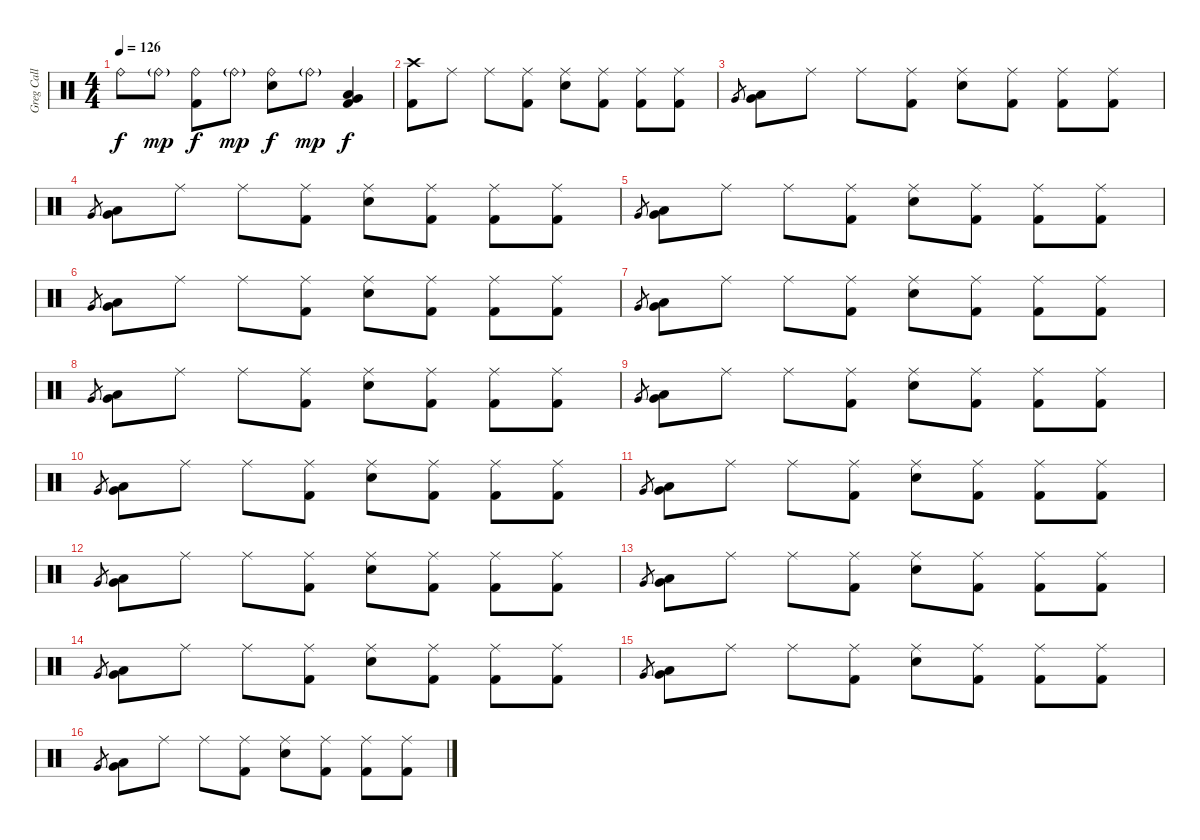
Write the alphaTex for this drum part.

\track ("Greg Call (Drums)" "Greg Call ") {instrument percussion}
\staff {score}
\articulation defaults
\ts (4 4)
\tempo 126
\clef neutral
\ks c "Ride (bell)".8{dy f} "Ride (bell)"{g}.8{dy mp}
("Ride (bell)" "Kick (hit) 2").8{dy f} "Ride (bell)"{g}.8{dy mp} ("Ride (bell)" "Snare (hit) 2").8{dy f} "Ride (bell)"{g}.8{dy mp} ("Very Low Tom (hit)" "Low Floor Tom (hit)" "Kick (hit) 2").4{dy f} |
("Crash high (hit)" "Kick (hit) 2").8 "Ride (middle)".8 "Ride (middle)".8 ("Ride (middle)" "Kick (hit) 2").8 ("Ride (middle)" "Snare (hit) 2").8 ("Ride (middle)" "Kick (hit) 2").8 ("Ride (middle)" "Kick (hit) 2").8 ("Ride (middle)" "Kick (hit) 2").8 |
"Very Low Tom (hit)".8{gr} ("Very Low Tom (hit)" "Low Floor Tom (hit)").8 "Ride (middle)".8 "Ride (middle)".8 ("Ride (middle)" "Kick (hit) 2").8 ("Ride (middle)" "Snare (hit) 2").8 ("Ride (middle)" "Kick (hit) 2").8 ("Ride (middle)" "Kick (hit) 2").8 ("Ride (middle)" "Kick (hit) 2").8 |
"Very Low Tom (hit)".8{gr} ("Very Low Tom (hit)" "Low Floor Tom (hit)").8 "Ride (middle)".8 "Ride (middle)".8 ("Ride (middle)" "Kick (hit) 2").8 ("Ride (middle)" "Snare (hit) 2").8 ("Ride (middle)" "Kick (hit) 2").8 ("Ride (middle)" "Kick (hit) 2").8 ("Ride (middle)" "Kick (hit) 2").8 |
"Very Low Tom (hit)".8{gr} ("Very Low Tom (hit)" "Low Floor Tom (hit)").8 "Ride (middle)".8 "Ride (middle)".8 ("Ride (middle)" "Kick (hit) 2").8 ("Ride (middle)" "Snare (hit) 2").8 ("Ride (middle)" "Kick (hit) 2").8 ("Ride (middle)" "Kick (hit) 2").8 ("Ride (middle)" "Kick (hit) 2").8 |
"Very Low Tom (hit)".8{gr} ("Very Low Tom (hit)" "Low Floor Tom (hit)").8 "Ride (middle)".8 "Ride (middle)".8 ("Ride (middle)" "Kick (hit) 2").8 ("Ride (middle)" "Snare (hit) 2").8 ("Ride (middle)" "Kick (hit) 2").8 ("Ride (middle)" "Kick (hit) 2").8 ("Ride (middle)" "Kick (hit) 2").8 |
"Very Low Tom (hit)".8{gr} ("Very Low Tom (hit)" "Low Floor Tom (hit)").8 "Ride (middle)".8 "Ride (middle)".8 ("Ride (middle)" "Kick (hit) 2").8 ("Ride (middle)" "Snare (hit) 2").8 ("Ride (middle)" "Kick (hit) 2").8 ("Ride (middle)" "Kick (hit) 2").8 ("Ride (middle)" "Kick (hit) 2").8 |
"Very Low Tom (hit)".8{gr} ("Very Low Tom (hit)" "Low Floor Tom (hit)").8 "Ride (middle)".8 "Ride (middle)".8 ("Ride (middle)" "Kick (hit) 2").8 ("Ride (middle)" "Snare (hit) 2").8 ("Ride (middle)" "Kick (hit) 2").8 ("Ride (middle)" "Kick (hit) 2").8 ("Ride (middle)" "Kick (hit) 2").8 |
"Very Low Tom (hit)".8{gr} ("Very Low Tom (hit)" "Low Floor Tom (hit)").8 "Ride (middle)".8 "Ride (middle)".8 ("Ride (middle)" "Kick (hit) 2").8 ("Ride (middle)" "Snare (hit) 2").8 ("Ride (middle)" "Kick (hit) 2").8 ("Ride (middle)" "Kick (hit) 2").8 ("Ride (middle)" "Kick (hit) 2").8 |
"Very Low Tom (hit)".8{gr} ("Very Low Tom (hit)" "Low Floor Tom (hit)").8 "Ride (middle)".8 "Ride (middle)".8 ("Ride (middle)" "Kick (hit) 2").8 ("Ride (middle)" "Snare (hit) 2").8 ("Ride (middle)" "Kick (hit) 2").8 ("Ride (middle)" "Kick (hit) 2").8 ("Ride (middle)" "Kick (hit) 2").8 |
"Very Low Tom (hit)".8{gr} ("Very Low Tom (hit)" "Low Floor Tom (hit)").8 "Ride (middle)".8 "Ride (middle)".8 ("Ride (middle)" "Kick (hit) 2").8 ("Ride (middle)" "Snare (hit) 2").8 ("Ride (middle)" "Kick (hit) 2").8 ("Ride (middle)" "Kick (hit) 2").8 ("Ride (middle)" "Kick (hit) 2").8 |
"Very Low Tom (hit)".8{gr} ("Very Low Tom (hit)" "Low Floor Tom (hit)").8 "Ride (middle)".8 "Ride (middle)".8 ("Ride (middle)" "Kick (hit) 2").8 ("Ride (middle)" "Snare (hit) 2").8 ("Ride (middle)" "Kick (hit) 2").8 ("Ride (middle)" "Kick (hit) 2").8 ("Ride (middle)" "Kick (hit) 2").8 |
"Very Low Tom (hit)".8{gr} ("Very Low Tom (hit)" "Low Floor Tom (hit)").8 "Ride (middle)".8 "Ride (middle)".8 ("Ride (middle)" "Kick (hit) 2").8 ("Ride (middle)" "Snare (hit) 2").8 ("Ride (middle)" "Kick (hit) 2").8 ("Ride (middle)" "Kick (hit) 2").8 ("Ride (middle)" "Kick (hit) 2").8 |
"Very Low Tom (hit)".8{gr} ("Very Low Tom (hit)" "Low Floor Tom (hit)").8 "Ride (middle)".8 "Ride (middle)".8 ("Ride (middle)" "Kick (hit) 2").8 ("Ride (middle)" "Snare (hit) 2").8 ("Ride (middle)" "Kick (hit) 2").8 ("Ride (middle)" "Kick (hit) 2").8 ("Ride (middle)" "Kick (hit) 2").8 |
"Very Low Tom (hit)".8{gr} ("Very Low Tom (hit)" "Low Floor Tom (hit)").8 "Ride (middle)".8 "Ride (middle)".8 ("Ride (middle)" "Kick (hit) 2").8 ("Ride (middle)" "Snare (hit) 2").8 ("Ride (middle)" "Kick (hit) 2").8 ("Ride (middle)" "Kick (hit) 2").8 ("Ride (middle)" "Kick (hit) 2").8 |
"Very Low Tom (hit)".8{gr} ("Very Low Tom (hit)" "Low Floor Tom (hit)").8 "Ride (middle)".8 "Ride (middle)".8 ("Ride (middle)" "Kick (hit) 2").8 ("Ride (middle)" "Snare (hit) 2").8 ("Ride (middle)" "Kick (hit) 2").8 ("Ride (middle)" "Kick (hit) 2").8 ("Ride (middle)" "Kick (hit) 2").8
